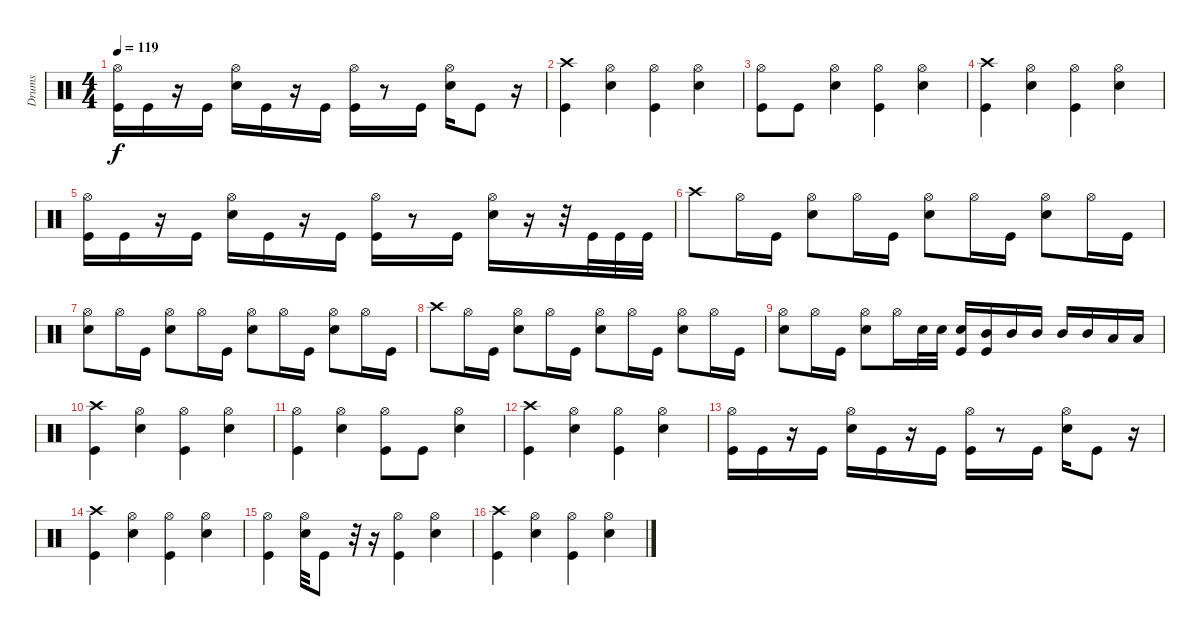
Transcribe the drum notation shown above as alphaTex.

\track ("Drums" "Drums") {instrument percussion}
\staff {score}
\articulation defaults
\ts (4 4)
\tempo 119
\clef neutral
\ks c
("Hi-Hat (open)" "Kick (hit)").16{dy f} "Kick (hit)".16 r.16 "Kick (hit)".16 ("Hi-Hat (open)" "Snare (hit) 2").16 "Kick (hit)".16 r.16 "Kick (hit)".16 ("Hi-Hat (open)" "Kick (hit)").16 r.8 "Kick (hit)".16 ("Hi-Hat (open)" "Snare (hit) 2").16 "Kick (hit)".8 r.16 |
("Crash high (hit)" "Kick (hit)").4 ("Hi-Hat (open)" "Snare (hit) 2").4 ("Hi-Hat (open)" "Kick (hit)").4 ("Hi-Hat (open)" "Snare (hit) 2").4 |
("Hi-Hat (open)" "Kick (hit)").8 "Kick (hit)".8 ("Hi-Hat (open)" "Snare (hit) 2").4 ("Hi-Hat (open)" "Kick (hit)").4 ("Hi-Hat (open)" "Snare (hit) 2").4 |
("Crash high (hit)" "Kick (hit)").4 ("Hi-Hat (open)" "Snare (hit) 2").4 ("Hi-Hat (open)" "Kick (hit)").4 ("Hi-Hat (open)" "Snare (hit) 2").4 |
("Hi-Hat (open)" "Kick (hit)").16 "Kick (hit)".16 r.16 "Kick (hit)".16 ("Hi-Hat (open)" "Snare (hit) 2").16 "Kick (hit)".16 r.16 "Kick (hit)".16 ("Hi-Hat (open)" "Kick (hit)").16 r.8 "Kick (hit)".16 ("Hi-Hat (open)" "Snare (hit) 2").16 r.16 r.32 "Kick (hit)".32 "Kick (hit)".32 "Kick (hit)".32 |
"Crash high (hit)".8 "Hi-Hat (open)".16 "Kick (hit)".16 ("Hi-Hat (open)" "Snare (hit) 2").8 "Hi-Hat (open)".16 "Kick (hit)".16 ("Hi-Hat (open)" "Snare (hit) 2").8 "Hi-Hat (open)".16 "Kick (hit)".16 ("Hi-Hat (open)" "Snare (hit) 2").8 "Hi-Hat (open)".16 "Kick (hit)".16 |
("Hi-Hat (open)" "Snare (hit) 2").8 "Hi-Hat (open)".16 "Kick (hit)".16 ("Hi-Hat (open)" "Snare (hit) 2").8 "Hi-Hat (open)".16 "Kick (hit)".16 ("Hi-Hat (open)" "Snare (hit) 2").8 "Hi-Hat (open)".16 "Kick (hit)".16 ("Hi-Hat (open)" "Snare (hit) 2").8 "Hi-Hat (open)".16 "Kick (hit)".16 |
"Crash high (hit)".8 "Hi-Hat (open)".16 "Kick (hit)".16 ("Hi-Hat (open)" "Snare (hit) 2").8 "Hi-Hat (open)".16 "Kick (hit)".16 ("Hi-Hat (open)" "Snare (hit) 2").8 "Hi-Hat (open)".16 "Kick (hit)".16 ("Hi-Hat (open)" "Snare (hit) 2").8 "Hi-Hat (open)".16 "Kick (hit)".16 |
("Hi-Hat (open)" "Snare (hit) 2").8 "Hi-Hat (open)".16 "Kick (hit)".16 ("Hi-Hat (open)" "Snare (hit) 2").8 "Hi-Hat (open)".16 "Snare (hit) 2".32 "Snare (hit) 2".32 ("Snare (hit) 2" "Kick (hit)").16 ("Mid Tom (hit)" "Kick (hit)").16 "Mid Tom (hit)".16 "Mid Tom (hit)".16 "Mid Tom (hit)".16 "Mid Tom (hit)".16 "Low Tom (hit)".16 "Low Tom (hit)".16 |
("Crash high (hit)" "Kick (hit)").4 ("Hi-Hat (open)" "Snare (hit) 2").4 ("Hi-Hat (open)" "Kick (hit)").4 ("Hi-Hat (open)" "Snare (hit) 2").4 |
("Hi-Hat (open)" "Kick (hit)").4 ("Hi-Hat (open)" "Snare (hit) 2").4 ("Hi-Hat (open)" "Kick (hit)").8 "Kick (hit)".8 ("Hi-Hat (open)" "Snare (hit) 2").4 |
("Crash high (hit)" "Kick (hit)").4 ("Hi-Hat (open)" "Snare (hit) 2").4 ("Hi-Hat (open)" "Kick (hit)").4 ("Hi-Hat (open)" "Snare (hit) 2").4 |
("Hi-Hat (open)" "Kick (hit)").16 "Kick (hit)".16 r.16 "Kick (hit)".16 ("Hi-Hat (open)" "Snare (hit) 2").16 "Kick (hit)".16 r.16 "Kick (hit)".16 ("Hi-Hat (open)" "Kick (hit)").16 r.8 "Kick (hit)".16 ("Hi-Hat (open)" "Snare (hit) 2").16 "Kick (hit)".8 r.16 |
("Crash high (hit)" "Kick (hit)").4 ("Hi-Hat (open)" "Snare (hit) 2").4 ("Hi-Hat (open)" "Kick (hit)").4 ("Hi-Hat (open)" "Snare (hit) 2").4 |
("Hi-Hat (open)" "Kick (hit)").4 ("Hi-Hat (open)" "Snare (hit) 2").32 "Kick (hit)".8 r.32 r.16 ("Hi-Hat (open)" "Kick (hit)").4 ("Hi-Hat (open)" "Snare (hit) 2").4 |
("Crash high (hit)" "Kick (hit)").4 ("Hi-Hat (open)" "Snare (hit) 2").4 ("Hi-Hat (open)" "Kick (hit)").4 ("Hi-Hat (open)" "Snare (hit) 2").4
